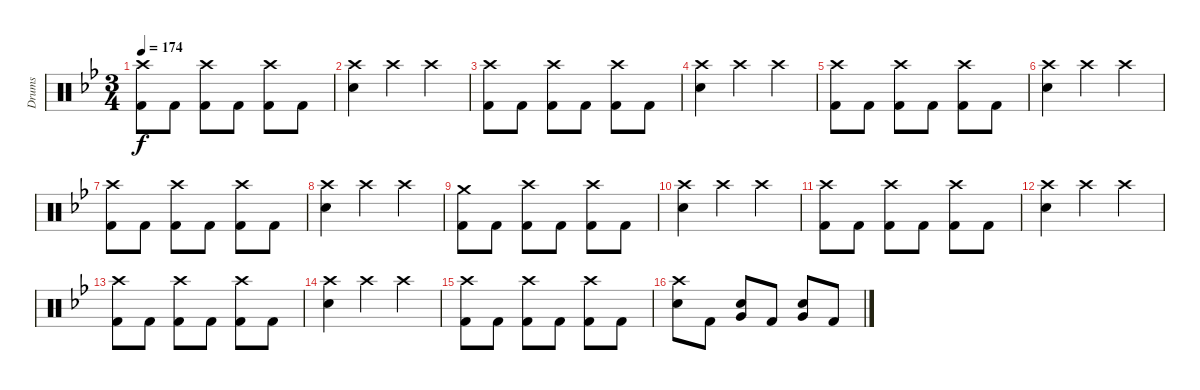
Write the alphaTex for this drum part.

\bracketExtendMode groupsimilarinstruments
\track ("Drumkit" "Drums") {instrument percussion}
\staff {score}
\articulation defaults
\ts (3 4)
\tempo 174
\clef neutral
\ks bb
("Crash high (hit)"{acc forcenatural} "Kick (hit) 2"{acc forcenatural}).8{dy f} "Kick (hit) 2"{acc forcenatural}.8 ("Crash high (hit)"{acc forcenatural} "Kick (hit) 2"{acc forcenatural}).8 "Kick (hit) 2"{acc forcenatural}.8 ("Crash high (hit)"{acc forcenatural} "Kick (hit) 2"{acc forcenatural}).8 "Kick (hit) 2"{acc forcenatural}.8 |
("Crash high (hit)"{acc forcenatural} "Snare (hit) 2"{acc forcenatural}).4 "Crash high (hit)"{acc forcenatural}.4 "Crash high (hit)"{acc forcenatural}.4 |
("Crash high (hit)"{acc forcenatural} "Kick (hit) 2"{acc forcenatural}).8 "Kick (hit) 2"{acc forcenatural}.8 ("Crash high (hit)"{acc forcenatural} "Kick (hit) 2"{acc forcenatural}).8 "Kick (hit) 2"{acc forcenatural}.8 ("Crash high (hit)"{acc forcenatural} "Kick (hit) 2"{acc forcenatural}).8 "Kick (hit) 2"{acc forcenatural}.8 |
("Crash high (hit)"{acc forcenatural} "Snare (hit) 2"{acc forcenatural}).4 "Crash high (hit)"{acc forcenatural}.4 "Crash high (hit)"{acc forcenatural}.4 |
("Crash high (hit)"{acc forcenatural} "Kick (hit) 2"{acc forcenatural}).8 "Kick (hit) 2"{acc forcenatural}.8 ("Crash high (hit)"{acc forcenatural} "Kick (hit) 2"{acc forcenatural}).8 "Kick (hit) 2"{acc forcenatural}.8 ("Crash high (hit)"{acc forcenatural} "Kick (hit) 2"{acc forcenatural}).8 "Kick (hit) 2"{acc forcenatural}.8 |
("Crash high (hit)"{acc forcenatural} "Snare (hit) 2"{acc forcenatural}).4 "Crash high (hit)"{acc forcenatural}.4 "Crash high (hit)"{acc forcenatural}.4 |
("Crash high (hit)"{acc forcenatural} "Kick (hit) 2"{acc forcenatural}).8 "Kick (hit) 2"{acc forcenatural}.8 ("Crash high (hit)"{acc forcenatural} "Kick (hit) 2"{acc forcenatural}).8 "Kick (hit) 2"{acc forcenatural}.8 ("Crash high (hit)"{acc forcenatural} "Kick (hit) 2"{acc forcenatural}).8 "Kick (hit) 2"{acc forcenatural}.8 |
("Crash high (hit)"{acc forcenatural} "Snare (hit) 2"{acc forcenatural}).4 "Crash high (hit)"{acc forcenatural}.4 "Crash high (hit)"{acc forcenatural}.4 |
("Crash medium (hit)"{acc forcenatural} "Kick (hit) 2"{acc forcenatural}).8 "Kick (hit) 2"{acc forcenatural}.8 ("Crash high (hit)"{acc forcenatural} "Kick (hit) 2"{acc forcenatural}).8 "Kick (hit) 2"{acc forcenatural}.8 ("Crash high (hit)"{acc forcenatural} "Kick (hit) 2"{acc forcenatural}).8 "Kick (hit) 2"{acc forcenatural}.8 |
("Crash high (hit)"{acc forcenatural} "Snare (hit) 2"{acc forcenatural}).4 "Crash high (hit)"{acc forcenatural}.4 "Crash high (hit)"{acc forcenatural}.4 |
("Crash high (hit)"{acc forcenatural} "Kick (hit) 2"{acc forcenatural}).8 "Kick (hit) 2"{acc forcenatural}.8 ("Crash high (hit)"{acc forcenatural} "Kick (hit) 2"{acc forcenatural}).8 "Kick (hit) 2"{acc forcenatural}.8 ("Crash high (hit)"{acc forcenatural} "Kick (hit) 2"{acc forcenatural}).8 "Kick (hit) 2"{acc forcenatural}.8 |
("Crash high (hit)"{acc forcenatural} "Snare (hit) 2"{acc forcenatural}).4 "Crash high (hit)"{acc forcenatural}.4 "Crash high (hit)"{acc forcenatural}.4 |
("Crash high (hit)"{acc forcenatural} "Kick (hit) 2"{acc forcenatural}).8 "Kick (hit) 2"{acc forcenatural}.8 ("Crash high (hit)"{acc forcenatural} "Kick (hit) 2"{acc forcenatural}).8 "Kick (hit) 2"{acc forcenatural}.8 ("Crash high (hit)"{acc forcenatural} "Kick (hit) 2"{acc forcenatural}).8 "Kick (hit) 2"{acc forcenatural}.8 |
("Crash high (hit)"{acc forcenatural} "Snare (hit) 2"{acc forcenatural}).4 "Crash high (hit)"{acc forcenatural}.4 "Crash high (hit)"{acc forcenatural}.4 |
("Crash high (hit)"{acc forcenatural} "Kick (hit) 2"{acc forcenatural}).8 "Kick (hit) 2"{acc forcenatural}.8 ("Crash high (hit)"{acc forcenatural} "Kick (hit) 2"{acc forcenatural}).8 "Kick (hit) 2"{acc forcenatural}.8 ("Crash high (hit)"{acc forcenatural} "Kick (hit) 2"{acc forcenatural}).8 "Kick (hit) 2"{acc forcenatural}.8 |
("Crash high (hit)"{acc forcenatural} "Snare (hit) 2"{acc forcenatural}).8 "Kick (hit) 2"{acc forcenatural}.8 ("Snare (hit) 2"{acc forcenatural} "Very Low Tom (hit)"{acc forcenatural}).8 "Kick (hit) 2"{acc forcenatural}.8 ("Snare (hit) 2"{acc forcenatural} "Very Low Tom (hit)"{acc forcenatural}).8 "Kick (hit) 2"{acc forcenatural}.8
